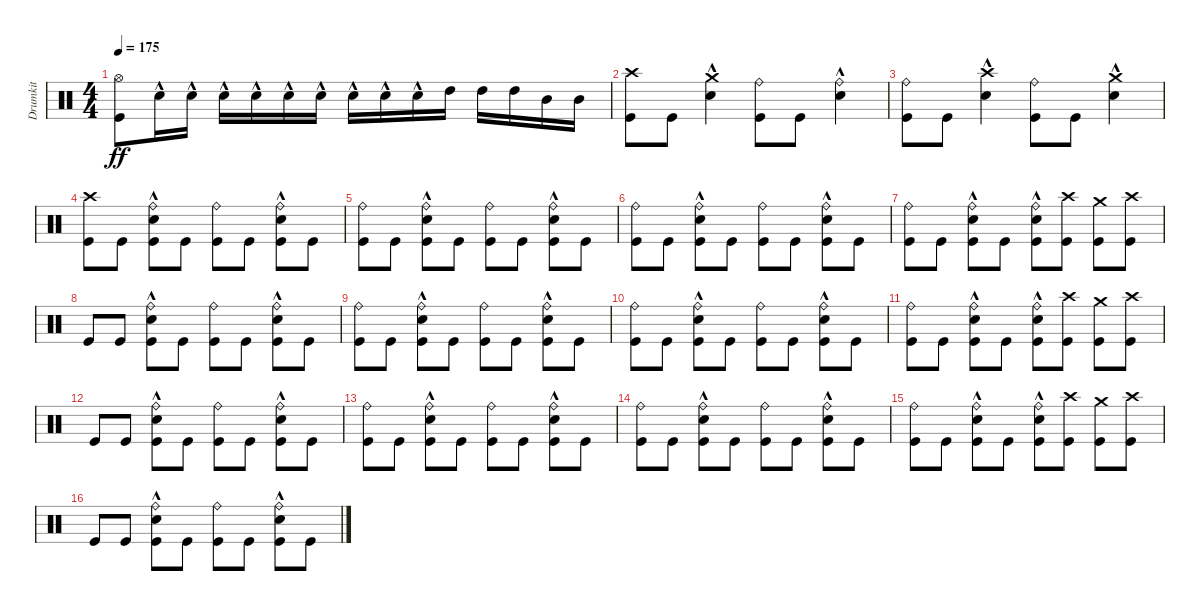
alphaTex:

\track ("Drumkit" "Drumkit") {instrument percussion}
\staff {score}
\articulation defaults
\ts (4 4)
\tempo 175
\clef neutral
\ks c
("Kick (hit)" "Hi-Hat (open)").8{dy ff} "Snare (hit) 2"{hac}.16 "Snare (hit) 2"{hac}.16 "Snare (hit) 2"{hac}.16 "Snare (hit) 2"{hac}.16 "Snare (hit) 2"{hac}.16 "Snare (hit) 2"{hac}.16 "Snare (hit) 2"{hac}.16 "Snare (hit) 2"{hac}.16 "Snare (hit) 2"{hac}.16 "High Tom (hit)".16 "High Tom (hit)".16 "High Tom (hit)".16 "Mid Tom (hit)".16 "Mid Tom (hit)".16 |
("Kick (hit)" "Crash high (hit)").8 "Kick (hit)".8 ("Snare (hit) 2"{hac} "Crash medium (hit)").4 ("Kick (hit)" "Ride (bell)").8 "Kick (hit)".8 ("Snare (hit) 2"{hac} "Ride (bell)").4 |
("Kick (hit)" "Ride (bell)").8 "Kick (hit)".8 ("Snare (hit) 2"{hac} "Crash high (hit)").4 ("Kick (hit)" "Ride (bell)").8 "Kick (hit)".8 ("Snare (hit) 2"{hac} "Crash medium (hit)").4 |
("Kick (hit)" "Crash high (hit)").8 "Kick (hit)".8 ("Kick (hit)" "Snare (hit) 2"{hac} "Ride (bell)").8 "Kick (hit)".8 ("Kick (hit)" "Ride (bell)").8 "Kick (hit)".8 ("Kick (hit)" "Snare (hit) 2"{hac} "Ride (bell)").8 "Kick (hit)".8 |
("Kick (hit)" "Ride (bell)").8 "Kick (hit)".8 ("Kick (hit)" "Snare (hit) 2"{hac} "Ride (bell)").8 "Kick (hit)".8 ("Kick (hit)" "Ride (bell)").8 "Kick (hit)".8 ("Kick (hit)" "Snare (hit) 2"{hac} "Ride (bell)").8 "Kick (hit)".8 |
("Kick (hit)" "Ride (bell)").8 "Kick (hit)".8 ("Kick (hit)" "Snare (hit) 2"{hac} "Ride (bell)").8 "Kick (hit)".8 ("Kick (hit)" "Ride (bell)").8 "Kick (hit)".8 ("Kick (hit)" "Snare (hit) 2"{hac} "Ride (bell)").8 "Kick (hit)".8 |
("Kick (hit)" "Ride (bell)").8 "Kick (hit)".8 ("Kick (hit)" "Snare (hit) 2"{hac} "Ride (bell)").8 "Kick (hit)".8 ("Kick (hit)" "Ride (bell)" "Snare (hit) 2"{hac}).8 ("Kick (hit)" "Crash high (hit)").8 ("Kick (hit)" "Crash medium (hit)").8 ("Kick (hit)" "Crash high (hit)").8 |
"Kick (hit)".8 "Kick (hit)".8 ("Kick (hit)" "Snare (hit) 2"{hac} "Ride (bell)").8 "Kick (hit)".8 ("Kick (hit)" "Ride (bell)").8 "Kick (hit)".8 ("Kick (hit)" "Snare (hit) 2"{hac} "Ride (bell)").8 "Kick (hit)".8 |
("Kick (hit)" "Ride (bell)").8 "Kick (hit)".8 ("Kick (hit)" "Snare (hit) 2"{hac} "Ride (bell)").8 "Kick (hit)".8 ("Kick (hit)" "Ride (bell)").8 "Kick (hit)".8 ("Kick (hit)" "Snare (hit) 2"{hac} "Ride (bell)").8 "Kick (hit)".8 |
("Kick (hit)" "Ride (bell)").8 "Kick (hit)".8 ("Kick (hit)" "Snare (hit) 2"{hac} "Ride (bell)").8 "Kick (hit)".8 ("Kick (hit)" "Ride (bell)").8 "Kick (hit)".8 ("Kick (hit)" "Snare (hit) 2"{hac} "Ride (bell)").8 "Kick (hit)".8 |
("Kick (hit)" "Ride (bell)").8 "Kick (hit)".8 ("Kick (hit)" "Snare (hit) 2"{hac} "Ride (bell)").8 "Kick (hit)".8 ("Kick (hit)" "Ride (bell)" "Snare (hit) 2"{hac}).8 ("Kick (hit)" "Crash high (hit)").8 ("Kick (hit)" "Crash medium (hit)").8 ("Kick (hit)" "Crash high (hit)").8 |
"Kick (hit)".8 "Kick (hit)".8 ("Kick (hit)" "Snare (hit) 2"{hac} "Ride (bell)").8 "Kick (hit)".8 ("Kick (hit)" "Ride (bell)").8 "Kick (hit)".8 ("Kick (hit)" "Snare (hit) 2"{hac} "Ride (bell)").8 "Kick (hit)".8 |
("Kick (hit)" "Ride (bell)").8 "Kick (hit)".8 ("Kick (hit)" "Snare (hit) 2"{hac} "Ride (bell)").8 "Kick (hit)".8 ("Kick (hit)" "Ride (bell)").8 "Kick (hit)".8 ("Kick (hit)" "Snare (hit) 2"{hac} "Ride (bell)").8 "Kick (hit)".8 |
("Kick (hit)" "Ride (bell)").8 "Kick (hit)".8 ("Kick (hit)" "Snare (hit) 2"{hac} "Ride (bell)").8 "Kick (hit)".8 ("Kick (hit)" "Ride (bell)").8 "Kick (hit)".8 ("Kick (hit)" "Snare (hit) 2"{hac} "Ride (bell)").8 "Kick (hit)".8 |
("Kick (hit)" "Ride (bell)").8 "Kick (hit)".8 ("Kick (hit)" "Snare (hit) 2"{hac} "Ride (bell)").8 "Kick (hit)".8 ("Kick (hit)" "Ride (bell)" "Snare (hit) 2"{hac}).8 ("Kick (hit)" "Crash high (hit)").8 ("Kick (hit)" "Crash medium (hit)").8 ("Kick (hit)" "Crash high (hit)").8 |
"Kick (hit)".8 "Kick (hit)".8 ("Kick (hit)" "Snare (hit) 2"{hac} "Ride (bell)").8 "Kick (hit)".8 ("Kick (hit)" "Ride (bell)").8 "Kick (hit)".8 ("Kick (hit)" "Snare (hit) 2"{hac} "Ride (bell)").8 "Kick (hit)".8
